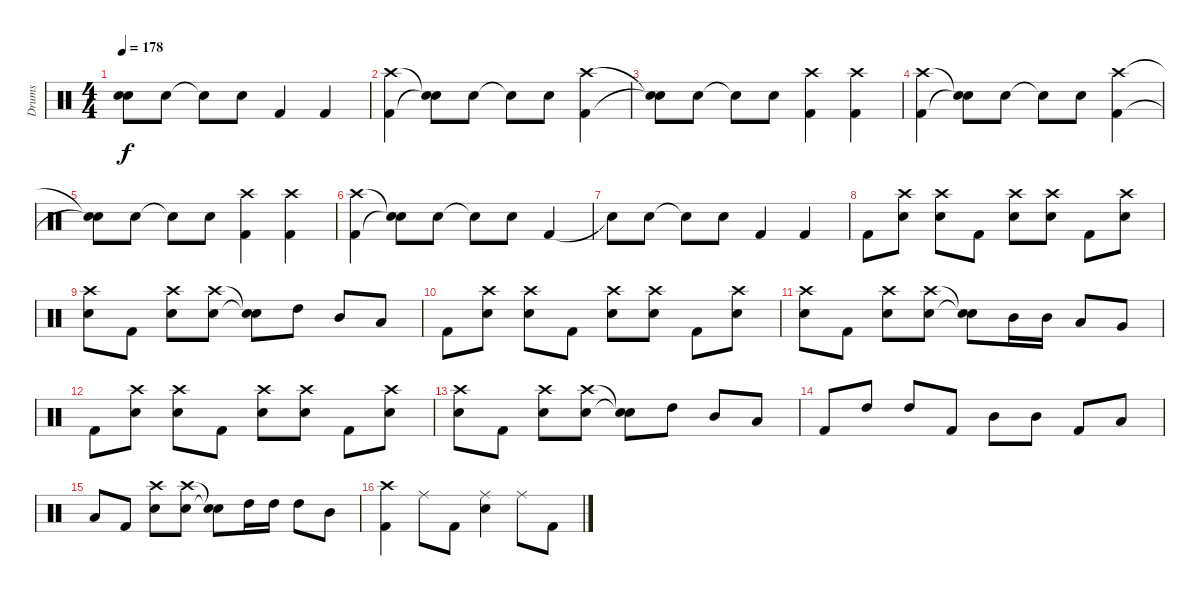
\track ("Drums" "Drums") {mute instrument percussion}
\staff {score}
\articulation defaults
\ts (4 4)
\tempo 178
\clef neutral
\ks c
("Snare (hit)"{t} "Snare (hit)"{t}).8{dy f} "Electric Snare (hit)".8 "Snare (hit)"{t}.8 "Electric Snare (hit)".8 "Kick (hit) 2".4 "Kick (hit) 2".4 |
("Crash high (hit)" "Kick (hit) 2").4 ("Snare (hit)"{t} "Snare (hit)"{t}).8 "Electric Snare (hit)".8 "Snare (hit)"{t}.8 "Electric Snare (hit)".8 ("Crash high (hit)" "Kick (hit) 2").4 |
("Snare (hit)"{t} "Snare (hit)"{t}).8 "Electric Snare (hit)".8 "Snare (hit)"{t}.8 "Electric Snare (hit)".8 ("Crash high (hit)" "Kick (hit) 2").4 ("Crash high (hit)" "Kick (hit) 2").4 |
("Crash high (hit)" "Kick (hit) 2").4 ("Snare (hit)"{t} "Snare (hit)"{t}).8 "Electric Snare (hit)".8 "Snare (hit)"{t}.8 "Electric Snare (hit)".8 ("Crash high (hit)" "Kick (hit) 2").4 |
("Snare (hit)"{t} "Snare (hit)"{t}).8 "Electric Snare (hit)".8 "Snare (hit)"{t}.8 "Electric Snare (hit)".8 ("Crash high (hit)" "Kick (hit) 2").4 ("Crash high (hit)" "Kick (hit) 2").4 |
("Crash high (hit)" "Kick (hit) 2").4 ("Snare (hit)"{t} "Snare (hit)"{t}).8 "Electric Snare (hit)".8 "Snare (hit)"{t}.8 "Electric Snare (hit)".8 "Kick (hit) 2".4 |
"Snare (hit)"{t}.8 "Electric Snare (hit)".8 "Snare (hit)"{t}.8 "Electric Snare (hit)".8 "Kick (hit) 2".4 "Kick (hit) 2".4 |
"Kick (hit) 2".8 ("Crash high (hit)" "Electric Snare (hit)").8 ("Crash high (hit)" "Electric Snare (hit)").8 "Kick (hit) 2".8 ("Crash high (hit)" "Electric Snare (hit)").8 ("Crash high (hit)" "Electric Snare (hit)").8 "Kick (hit) 2".8 ("Crash high (hit)" "Electric Snare (hit)").8 |
("Crash high (hit)" "Electric Snare (hit)").8 "Kick (hit) 2".8 ("Crash high (hit)" "Electric Snare (hit)").8 ("Crash high (hit)" "Electric Snare (hit)").8 ("Snare (hit)"{t} "Snare (hit)"{t}).8 "High Tom (hit)".8 "Mid Tom (hit)".8 "Low Tom (hit)".8 |
"Kick (hit) 2".8 ("Crash high (hit)" "Electric Snare (hit)").8 ("Crash high (hit)" "Electric Snare (hit)").8 "Kick (hit) 2".8 ("Crash high (hit)" "Electric Snare (hit)").8 ("Crash high (hit)" "Electric Snare (hit)").8 "Kick (hit) 2".8 ("Crash high (hit)" "Electric Snare (hit)").8 |
("Crash high (hit)" "Electric Snare (hit)").8 "Kick (hit) 2".8 ("Crash high (hit)" "Electric Snare (hit)").8 ("Crash high (hit)" "Electric Snare (hit)").8 ("Snare (hit)"{t} "Snare (hit)"{t}).8 "Mid Tom (hit)".16 "Mid Tom (hit)".16 "Low Tom (hit)".8 "Very Low Tom (hit)".8 |
"Kick (hit) 2".8 ("Crash high (hit)" "Electric Snare (hit)").8 ("Crash high (hit)" "Electric Snare (hit)").8 "Kick (hit) 2".8 ("Crash high (hit)" "Electric Snare (hit)").8 ("Crash high (hit)" "Electric Snare (hit)").8 "Kick (hit) 2".8 ("Crash high (hit)" "Electric Snare (hit)").8 |
("Crash high (hit)" "Electric Snare (hit)").8 "Kick (hit) 2".8 ("Crash high (hit)" "Electric Snare (hit)").8 ("Crash high (hit)" "Electric Snare (hit)").8 ("Snare (hit)"{t} "Snare (hit)"{t}).8 "High Tom (hit)".8 "Mid Tom (hit)".8 "Low Tom (hit)".8 |
"Kick (hit) 2".8 "High Tom (hit)".8 "High Tom (hit)".8 "Kick (hit) 2".8 "Mid Tom (hit)".8 "Mid Tom (hit)".8 "Kick (hit) 2".8 "Low Tom (hit)".8 |
"Low Tom (hit)".8 "Kick (hit) 2".8 ("Crash high (hit)" "Electric Snare (hit)").8 ("Crash high (hit)" "Electric Snare (hit)").8 ("Snare (hit)"{t} "Snare (hit)"{t}).8 "High Tom (hit)".16 "High Tom (hit)".16 "High Tom (hit)".8 "Mid Tom (hit)".8 |
("Crash high (hit)" "Kick (hit) 2").4 "Ride (middle)".8 "Kick (hit) 2".8 ("Ride (middle)" "Electric Snare (hit)").4 "Ride (middle)".8 "Kick (hit) 2".8
